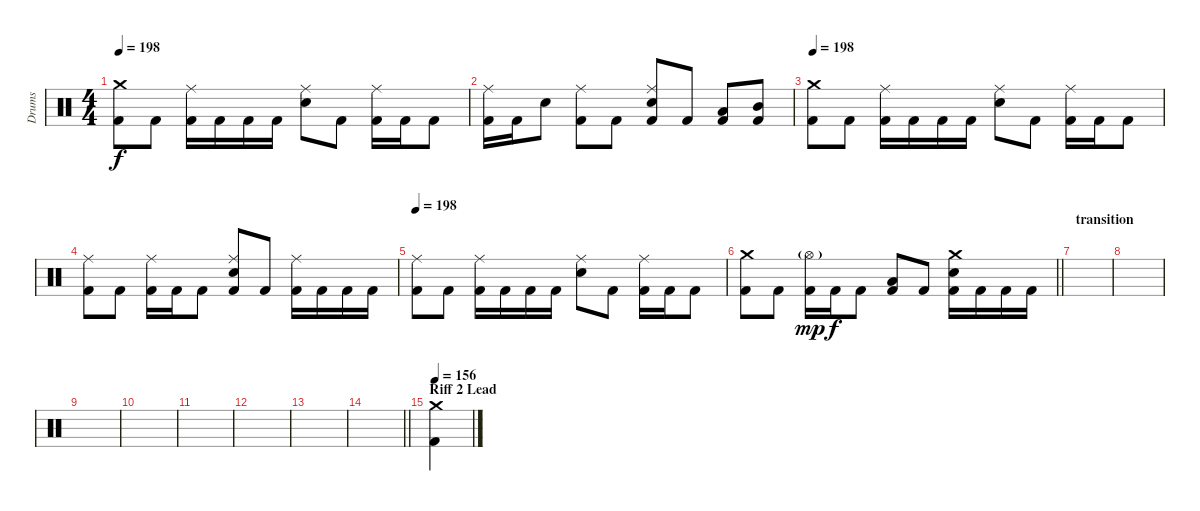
\track ("Drums" "Drums") {instrument percussion}
\staff {score}
\articulation defaults
\ts (4 4)
\tempo 198
\clef neutral
\ks c
("Crash medium (hit)" "Kick (hit) 2").8{dy f} "Kick (hit) 2".8 ("Ride (middle)" "Kick (hit) 2").16 "Kick (hit) 2".16 "Kick (hit) 2".16 "Kick (hit) 2".16 ("Ride (middle)" "Snare (hit) 2").8 "Kick (hit) 2".8 ("Ride (middle)" "Kick (hit) 2").16 "Kick (hit) 2".16 "Kick (hit) 2".8 |
("Ride (middle)" "Kick (hit) 2").16 "Kick (hit) 2".16 "Snare (hit) 2".8 ("Ride (middle)" "Kick (hit) 2").8 "Kick (hit) 2".8 ("Ride (middle)" "Snare (hit) 2" "Kick (hit) 2").8 "Kick (hit) 2".8 ("Low Tom (hit)" "Kick (hit) 2").8 ("Mid Tom (hit)" "Kick (hit) 2").8 |
\tempo 198
("Crash medium (hit)" "Kick (hit) 2").8 "Kick (hit) 2".8 ("Ride (middle)" "Kick (hit) 2").16 "Kick (hit) 2".16 "Kick (hit) 2".16 "Kick (hit) 2".16 ("Ride (middle)" "Snare (hit) 2").8 "Kick (hit) 2".8 ("Ride (middle)" "Kick (hit) 2").16 "Kick (hit) 2".16 "Kick (hit) 2".8 |
("Ride (middle)" "Kick (hit) 2").8 "Kick (hit) 2".8 ("Ride (middle)" "Kick (hit) 2").16 "Kick (hit) 2".16 "Kick (hit) 2".8 ("Ride (middle)" "Snare (hit) 2" "Kick (hit) 2").8 "Kick (hit) 2".8 ("Ride (middle)" "Kick (hit) 2").16 "Kick (hit) 2".16 "Kick (hit) 2".16 "Kick (hit) 2".16 |
\tempo 198
("Ride (middle)" "Kick (hit) 2").8 "Kick (hit) 2".8 ("Ride (middle)" "Kick (hit) 2").16 "Kick (hit) 2".16 "Kick (hit) 2".16 "Kick (hit) 2".16 ("Ride (middle)" "Snare (hit) 2").8 "Kick (hit) 2".8 ("Ride (middle)" "Kick (hit) 2").16 "Kick (hit) 2".16 "Kick (hit) 2".8 |
\barLineRight lightlight
("Crash medium (hit)" "Kick (hit) 2").8 "Kick (hit) 2".8 ("Hi-Hat (open)"{g} "Kick (hit) 2").16{dy mp} "Kick (hit) 2".16{dy f} "Kick (hit) 2".8 ("Low Tom (hit)" "Kick (hit) 2").8 "Kick (hit) 2".8 ("Crash medium (hit)" "Snare (hit) 2" "Kick (hit) 2").16 "Kick (hit) 2".16 "Kick (hit) 2".16 "Kick (hit) 2".16 |
\section ("" "transition")
|
|
|
|
|
|
|
\barLineRight lightlight
|
\section ("" "Riff 2 Lead")
\tempo 156
("Crash medium (hit)" "Kick (hit) 2").4
